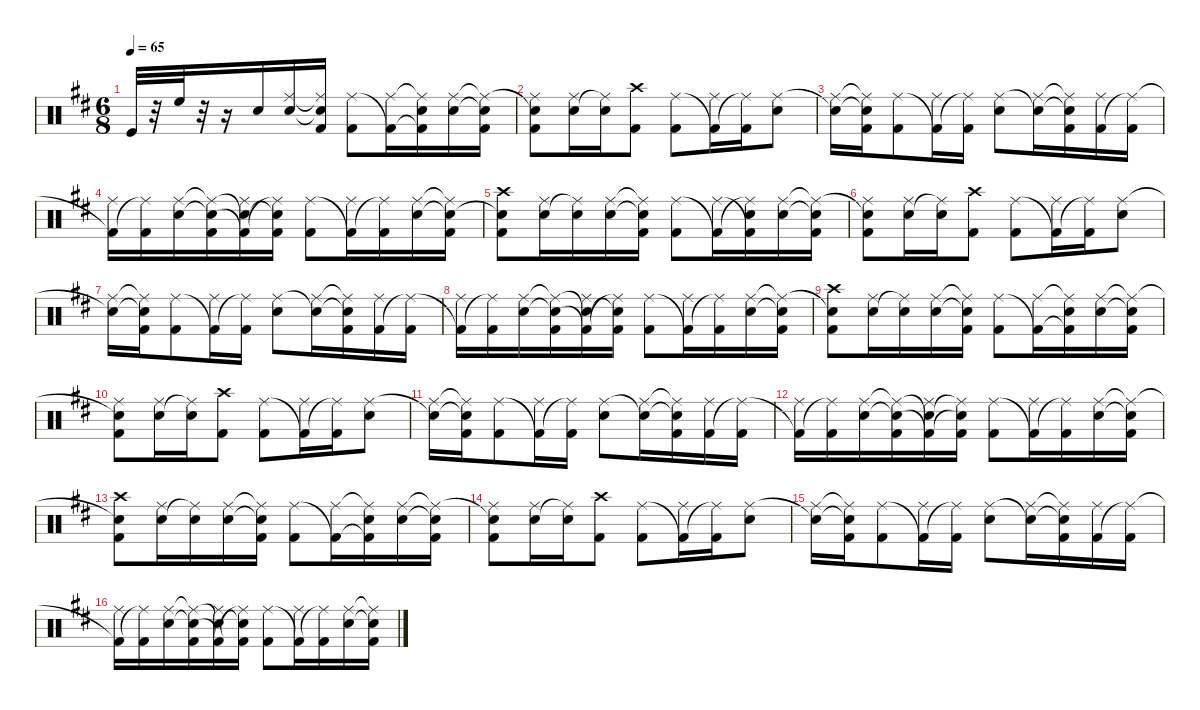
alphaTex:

\hideDynamics
\bracketExtendMode nobrackets
\singleTrackTrackNamePolicy hidden
\multiTrackTrackNamePolicy hidden
\firstSystemTrackNameMode fullname
\firstSystemTrackNameOrientation horizontal
\otherSystemsTrackNameOrientation horizontal
\track ("Drums" "drm.") {instrument percussion}
\staff {score}
\articulation defaults
\ts (6 8)
\tempo 65
\clef neutral
\ks bminor "Kick (hit)"{acc forcenatural}.32{dy f beam Up}
r.32{beam Up} "High Floor Tom (hit)"{acc forcenatural}.32{dy mf beam Down} r.32{beam Down} r.16{beam Down} "Snare (hit) 2"{acc forcenatural}.16{dy ff beam Down} ("Snare (hit) 2"{acc forcenatural} "Ride (middle)"{acc #}).16{beam Down} ("Snare (hit) 2"{t acc forcenatural} "Ride (middle)"{t acc #} "Kick (hit) 2"{acc forcenatural}).16{beam Down} ("Ride (middle)"{acc #} "Kick (hit) 2"{acc forcenatural}).8{beam Down} ("Kick (hit) 2"{t acc forcenatural} "Ride (middle)"{acc #}).16{beam Down} ("Kick (hit) 2"{t acc forcenatural} "Ride (middle)"{t acc #} "Snare (hit) 2"{acc forcenatural}).16{beam Down} ("Ride (middle)"{acc #} "Snare (hit) 2"{acc forcenatural}).16{beam Down} ("Ride (middle)"{t acc #} "Snare (hit) 2"{t acc forcenatural} "Kick (hit) 2"{acc forcenatural}).16{beam Down} |
("Snare (hit) 2"{t acc forcenatural} "Kick (hit) 2"{acc forcenatural} "Ride (middle)"{acc #}).8{beam Down} ("Snare (hit) 2"{acc forcenatural} "Ride (middle)"{acc #}).16{beam Down} ("Ride (middle)"{t acc #} "Snare (hit) 2"{acc forcenatural}).16{beam Down} ("Kick (hit) 2"{acc forcenatural} "Crash high (hit)"{acc #}).8{beam Down} ("Ride (middle)"{acc #} "Kick (hit) 2"{acc forcenatural}).8{beam Down} ("Kick (hit) 2"{t acc forcenatural} "Ride (middle)"{acc #}).16{beam Down} ("Ride (middle)"{t acc #} "Kick (hit) 2"{acc forcenatural}).16{beam Down} ("Ride (middle)"{acc #} "Snare (hit) 2"{acc forcenatural}).8{beam Down} |
("Snare (hit) 2"{t acc forcenatural} "Ride (middle)"{acc #}).16{beam Down} ("Snare (hit) 2"{t acc forcenatural} "Ride (middle)"{t acc #} "Kick (hit) 2"{acc forcenatural}).16{beam Down} ("Ride (middle)"{acc #} "Kick (hit) 2"{acc forcenatural}).8{beam Down} ("Kick (hit) 2"{t acc forcenatural} "Ride (middle)"{acc #}).16{beam Down} ("Ride (middle)"{t acc #} "Kick (hit) 2"{acc forcenatural}).16{beam Down} ("Ride (middle)"{acc #} "Snare (hit) 2"{acc forcenatural}).8{beam Down} ("Snare (hit) 2"{t acc forcenatural} "Ride (middle)"{acc #}).16{beam Down} ("Snare (hit) 2"{t acc forcenatural} "Ride (middle)"{t acc #} "Kick (hit) 2"{acc forcenatural}).16{beam Down} ("Kick (hit) 2"{acc forcenatural} "Ride (middle)"{acc #}).16{beam Down} ("Ride (middle)"{t acc #} "Kick (hit) 2"{acc forcenatural}).16{beam Down} |
("Kick (hit) 2"{t acc forcenatural} "Ride (middle)"{acc #}).16{beam Down} ("Ride (middle)"{t acc #} "Kick (hit) 2"{acc forcenatural}).16{beam Down} ("Ride (middle)"{acc #} "Snare (hit) 2"{acc forcenatural}).16{beam Down} ("Ride (middle)"{t acc #} "Snare (hit) 2"{t acc forcenatural} "Kick (hit) 2"{acc forcenatural}).16{beam Down} ("Snare (hit) 2"{t acc forcenatural} "Kick (hit) 2"{t acc forcenatural} "Ride (middle)"{acc #}).16{beam Down} ("Snare (hit) 2"{t acc forcenatural} "Ride (middle)"{t acc #} "Kick (hit) 2"{acc forcenatural}).16{beam Down} ("Ride (middle)"{acc #} "Kick (hit) 2"{acc forcenatural}).8{beam Down} ("Kick (hit) 2"{t acc forcenatural} "Ride (middle)"{acc #}).16{beam Down} ("Ride (middle)"{t acc #} "Kick (hit) 2"{acc forcenatural}).16{beam Down} ("Ride (middle)"{acc #} "Snare (hit) 2"{acc forcenatural}).16{beam Down} ("Ride (middle)"{t acc #} "Snare (hit) 2"{t acc forcenatural} "Kick (hit) 2"{acc forcenatural}).16{beam Down} |
("Kick (hit) 2"{acc forcenatural} "Snare (hit) 2"{t acc forcenatural} "Crash high (hit)"{acc #}).8{beam Down} ("Snare (hit) 2"{acc forcenatural} "Ride (middle)"{acc #}).16{beam Down} ("Ride (middle)"{t acc #} "Snare (hit) 2"{acc forcenatural}).16{beam Down} ("Snare (hit) 2"{acc forcenatural} "Ride (middle)"{acc #}).16{beam Down} ("Snare (hit) 2"{t acc forcenatural} "Ride (middle)"{t acc #} "Kick (hit) 2"{acc forcenatural}).16{beam Down} ("Ride (middle)"{acc #} "Kick (hit) 2"{acc forcenatural}).8{beam Down} ("Kick (hit) 2"{t acc forcenatural} "Ride (middle)"{acc #}).16{beam Down} ("Ride (middle)"{t acc #} "Kick (hit) 2"{t acc forcenatural} "Snare (hit) 2"{acc forcenatural}).16{beam Down} ("Ride (middle)"{acc #} "Snare (hit) 2"{acc forcenatural}).16{beam Down} ("Ride (middle)"{t acc #} "Snare (hit) 2"{t acc forcenatural} "Kick (hit) 2"{acc forcenatural}).16{beam Down} |
("Snare (hit) 2"{t acc forcenatural} "Kick (hit) 2"{acc forcenatural} "Ride (middle)"{acc #}).8{beam Down} ("Snare (hit) 2"{acc forcenatural} "Ride (middle)"{acc #}).16{beam Down} ("Ride (middle)"{t acc #} "Snare (hit) 2"{acc forcenatural}).16{beam Down} ("Kick (hit) 2"{acc forcenatural} "Crash high (hit)"{acc #}).8{beam Down} ("Ride (middle)"{acc #} "Kick (hit) 2"{acc forcenatural}).8{beam Down} ("Kick (hit) 2"{t acc forcenatural} "Ride (middle)"{acc #}).16{beam Down} ("Ride (middle)"{t acc #} "Kick (hit) 2"{acc forcenatural}).16{beam Down} ("Ride (middle)"{acc #} "Snare (hit) 2"{acc forcenatural}).8{beam Down} |
("Snare (hit) 2"{t acc forcenatural} "Ride (middle)"{acc #}).16{beam Down} ("Snare (hit) 2"{t acc forcenatural} "Ride (middle)"{t acc #} "Kick (hit) 2"{acc forcenatural}).16{beam Down} ("Ride (middle)"{acc #} "Kick (hit) 2"{acc forcenatural}).8{beam Down} ("Kick (hit) 2"{t acc forcenatural} "Ride (middle)"{acc #}).16{beam Down} ("Ride (middle)"{t acc #} "Kick (hit) 2"{acc forcenatural}).16{beam Down} ("Ride (middle)"{acc #} "Snare (hit) 2"{acc forcenatural}).8{beam Down} ("Snare (hit) 2"{t acc forcenatural} "Ride (middle)"{acc #}).16{beam Down} ("Snare (hit) 2"{t acc forcenatural} "Ride (middle)"{t acc #} "Kick (hit) 2"{acc forcenatural}).16{beam Down} ("Kick (hit) 2"{acc forcenatural} "Ride (middle)"{acc #}).16{beam Down} ("Ride (middle)"{t acc #} "Kick (hit) 2"{acc forcenatural}).16{beam Down} |
("Kick (hit) 2"{t acc forcenatural} "Ride (middle)"{acc #}).16{beam Down} ("Ride (middle)"{t acc #} "Kick (hit) 2"{acc forcenatural}).16{beam Down} ("Ride (middle)"{acc #} "Snare (hit) 2"{acc forcenatural}).16{beam Down} ("Ride (middle)"{t acc #} "Snare (hit) 2"{t acc forcenatural} "Kick (hit) 2"{acc forcenatural}).16{beam Down} ("Snare (hit) 2"{t acc forcenatural} "Kick (hit) 2"{t acc forcenatural} "Ride (middle)"{acc #}).16{beam Down} ("Snare (hit) 2"{t acc forcenatural} "Ride (middle)"{t acc #} "Kick (hit) 2"{acc forcenatural}).16{beam Down} ("Ride (middle)"{acc #} "Kick (hit) 2"{acc forcenatural}).8{beam Down} ("Kick (hit) 2"{t acc forcenatural} "Ride (middle)"{acc #}).16{beam Down} ("Ride (middle)"{t acc #} "Kick (hit) 2"{acc forcenatural}).16{beam Down} ("Ride (middle)"{acc #} "Snare (hit) 2"{acc forcenatural}).16{beam Down} ("Ride (middle)"{t acc #} "Snare (hit) 2"{t acc forcenatural} "Kick (hit) 2"{acc forcenatural}).16{beam Down} |
("Snare (hit) 2"{t acc forcenatural} "Kick (hit) 2"{acc forcenatural} "Crash high (hit)"{acc #}).8{beam Down} ("Snare (hit) 2"{acc forcenatural} "Ride (middle)"{acc #}).16{beam Down} ("Ride (middle)"{t acc #} "Snare (hit) 2"{acc forcenatural}).16{beam Down} ("Snare (hit) 2"{acc forcenatural} "Ride (middle)"{acc #}).16{beam Down} ("Snare (hit) 2"{t acc forcenatural} "Ride (middle)"{t acc #} "Kick (hit) 2"{acc forcenatural}).16{beam Down} ("Ride (middle)"{acc #} "Kick (hit) 2"{acc forcenatural}).8{beam Down} ("Kick (hit) 2"{t acc forcenatural} "Ride (middle)"{acc #}).16{beam Down} ("Kick (hit) 2"{t acc forcenatural} "Ride (middle)"{t acc #} "Snare (hit) 2"{acc forcenatural}).16{beam Down} ("Ride (middle)"{acc #} "Snare (hit) 2"{acc forcenatural}).16{beam Down} ("Ride (middle)"{t acc #} "Snare (hit) 2"{t acc forcenatural} "Kick (hit) 2"{acc forcenatural}).16{beam Down} |
("Snare (hit) 2"{t acc forcenatural} "Kick (hit) 2"{acc forcenatural} "Ride (middle)"{acc #}).8{beam Down} ("Snare (hit) 2"{acc forcenatural} "Ride (middle)"{acc #}).16{beam Down} ("Ride (middle)"{t acc #} "Snare (hit) 2"{acc forcenatural}).16{beam Down} ("Kick (hit) 2"{acc forcenatural} "Crash high (hit)"{acc #}).8{beam Down} ("Ride (middle)"{acc #} "Kick (hit) 2"{acc forcenatural}).8{beam Down} ("Kick (hit) 2"{t acc forcenatural} "Ride (middle)"{acc #}).16{beam Down} ("Ride (middle)"{t acc #} "Kick (hit) 2"{acc forcenatural}).16{beam Down} ("Ride (middle)"{acc #} "Snare (hit) 2"{acc forcenatural}).8{beam Down} |
("Snare (hit) 2"{t acc forcenatural} "Ride (middle)"{acc #}).16{beam Down} ("Snare (hit) 2"{t acc forcenatural} "Ride (middle)"{t acc #} "Kick (hit) 2"{acc forcenatural}).16{beam Down} ("Ride (middle)"{acc #} "Kick (hit) 2"{acc forcenatural}).8{beam Down} ("Kick (hit) 2"{t acc forcenatural} "Ride (middle)"{acc #}).16{beam Down} ("Ride (middle)"{t acc #} "Kick (hit) 2"{acc forcenatural}).16{beam Down} ("Ride (middle)"{acc #} "Snare (hit) 2"{acc forcenatural}).8{beam Down} ("Snare (hit) 2"{t acc forcenatural} "Ride (middle)"{acc #}).16{beam Down} ("Snare (hit) 2"{t acc forcenatural} "Ride (middle)"{t acc #} "Kick (hit) 2"{acc forcenatural}).16{beam Down} ("Kick (hit) 2"{acc forcenatural} "Ride (middle)"{acc #}).16{beam Down} ("Ride (middle)"{t acc #} "Kick (hit) 2"{acc forcenatural}).16{beam Down} |
("Kick (hit) 2"{t acc forcenatural} "Ride (middle)"{acc #}).16{beam Down} ("Ride (middle)"{t acc #} "Kick (hit) 2"{acc forcenatural}).16{beam Down} ("Ride (middle)"{acc #} "Snare (hit) 2"{acc forcenatural}).16{beam Down} ("Ride (middle)"{t acc #} "Snare (hit) 2"{t acc forcenatural} "Kick (hit) 2"{acc forcenatural}).16{beam Down} ("Snare (hit) 2"{t acc forcenatural} "Kick (hit) 2"{t acc forcenatural} "Ride (middle)"{acc #}).16{beam Down} ("Ride (middle)"{t acc #} "Snare (hit) 2"{t acc forcenatural} "Kick (hit) 2"{acc forcenatural}).16{beam Down} ("Ride (middle)"{acc #} "Kick (hit) 2"{acc forcenatural}).8{beam Down} ("Kick (hit) 2"{t acc forcenatural} "Ride (middle)"{acc #}).16{beam Down} ("Ride (middle)"{t acc #} "Kick (hit) 2"{acc forcenatural}).16{beam Down} ("Ride (middle)"{acc #} "Snare (hit) 2"{acc forcenatural}).16{beam Down} ("Ride (middle)"{t acc #} "Snare (hit) 2"{t acc forcenatural} "Kick (hit) 2"{acc forcenatural}).16{beam Down} |
("Snare (hit) 2"{t acc forcenatural} "Kick (hit) 2"{acc forcenatural} "Crash high (hit)"{acc #}).8{beam Down} ("Snare (hit) 2"{acc forcenatural} "Ride (middle)"{acc #}).16{beam Down} ("Ride (middle)"{t acc #} "Snare (hit) 2"{acc forcenatural}).16{beam Down} ("Snare (hit) 2"{acc forcenatural} "Ride (middle)"{acc #}).16{beam Down} ("Snare (hit) 2"{t acc forcenatural} "Ride (middle)"{t acc #} "Kick (hit) 2"{acc forcenatural}).16{beam Down} ("Ride (middle)"{acc #} "Kick (hit) 2"{acc forcenatural}).8{beam Down} ("Kick (hit) 2"{t acc forcenatural} "Ride (middle)"{acc #}).16{beam Down} ("Kick (hit) 2"{t acc forcenatural} "Ride (middle)"{t acc #} "Snare (hit) 2"{acc forcenatural}).16{beam Down} ("Ride (middle)"{acc #} "Snare (hit) 2"{acc forcenatural}).16{beam Down} ("Ride (middle)"{t acc #} "Snare (hit) 2"{t acc forcenatural} "Kick (hit) 2"{acc forcenatural}).16{beam Down} |
("Snare (hit) 2"{t acc forcenatural} "Kick (hit) 2"{acc forcenatural} "Ride (middle)"{acc #}).8{beam Down} ("Snare (hit) 2"{acc forcenatural} "Ride (middle)"{acc #}).16{beam Down} ("Ride (middle)"{t acc #} "Snare (hit) 2"{acc forcenatural}).16{beam Down} ("Kick (hit) 2"{acc forcenatural} "Crash high (hit)"{acc #}).8{beam Down} ("Ride (middle)"{acc #} "Kick (hit) 2"{acc forcenatural}).8{beam Down} ("Kick (hit) 2"{t acc forcenatural} "Ride (middle)"{acc #}).16{beam Down} ("Ride (middle)"{t acc #} "Kick (hit) 2"{acc forcenatural}).16{beam Down} ("Ride (middle)"{acc #} "Snare (hit) 2"{acc forcenatural}).8{beam Down} |
("Snare (hit) 2"{t acc forcenatural} "Ride (middle)"{acc #}).16{beam Down} ("Snare (hit) 2"{t acc forcenatural} "Ride (middle)"{t acc #} "Kick (hit) 2"{acc forcenatural}).16{beam Down} ("Ride (middle)"{acc #} "Kick (hit) 2"{acc forcenatural}).8{beam Down} ("Kick (hit) 2"{t acc forcenatural} "Ride (middle)"{acc #}).16{beam Down} ("Ride (middle)"{t acc #} "Kick (hit) 2"{acc forcenatural}).16{beam Down} ("Ride (middle)"{acc #} "Snare (hit) 2"{acc forcenatural}).8{beam Down} ("Snare (hit) 2"{t acc forcenatural} "Ride (middle)"{acc #}).16{beam Down} ("Snare (hit) 2"{t acc forcenatural} "Ride (middle)"{t acc #} "Kick (hit) 2"{acc forcenatural}).16{beam Down} ("Kick (hit) 2"{acc forcenatural} "Ride (middle)"{acc #}).16{beam Down} ("Ride (middle)"{t acc #} "Kick (hit) 2"{acc forcenatural}).16{beam Down} |
("Kick (hit) 2"{t acc forcenatural} "Ride (middle)"{acc #}).16{beam Down} ("Ride (middle)"{t acc #} "Kick (hit) 2"{acc forcenatural}).16{beam Down} ("Ride (middle)"{acc #} "Snare (hit) 2"{acc forcenatural}).16{beam Down} ("Ride (middle)"{t acc #} "Snare (hit) 2"{t acc forcenatural} "Kick (hit) 2"{acc forcenatural}).16{beam Down} ("Snare (hit) 2"{t acc forcenatural} "Kick (hit) 2"{t acc forcenatural} "Ride (middle)"{acc #}).16{beam Down} ("Snare (hit) 2"{t acc forcenatural} "Ride (middle)"{t acc #} "Kick (hit) 2"{acc forcenatural}).16{beam Down} ("Ride (middle)"{acc #} "Kick (hit) 2"{acc forcenatural}).8{beam Down} ("Kick (hit) 2"{t acc forcenatural} "Ride (middle)"{acc #}).16{beam Down} ("Ride (middle)"{t acc #} "Kick (hit) 2"{acc forcenatural}).16{beam Down} ("Ride (middle)"{acc #} "Snare (hit) 2"{acc forcenatural}).16{beam Down} ("Ride (middle)"{t acc #} "Snare (hit) 2"{t acc forcenatural} "Kick (hit) 2"{acc forcenatural}).16{beam Down}
